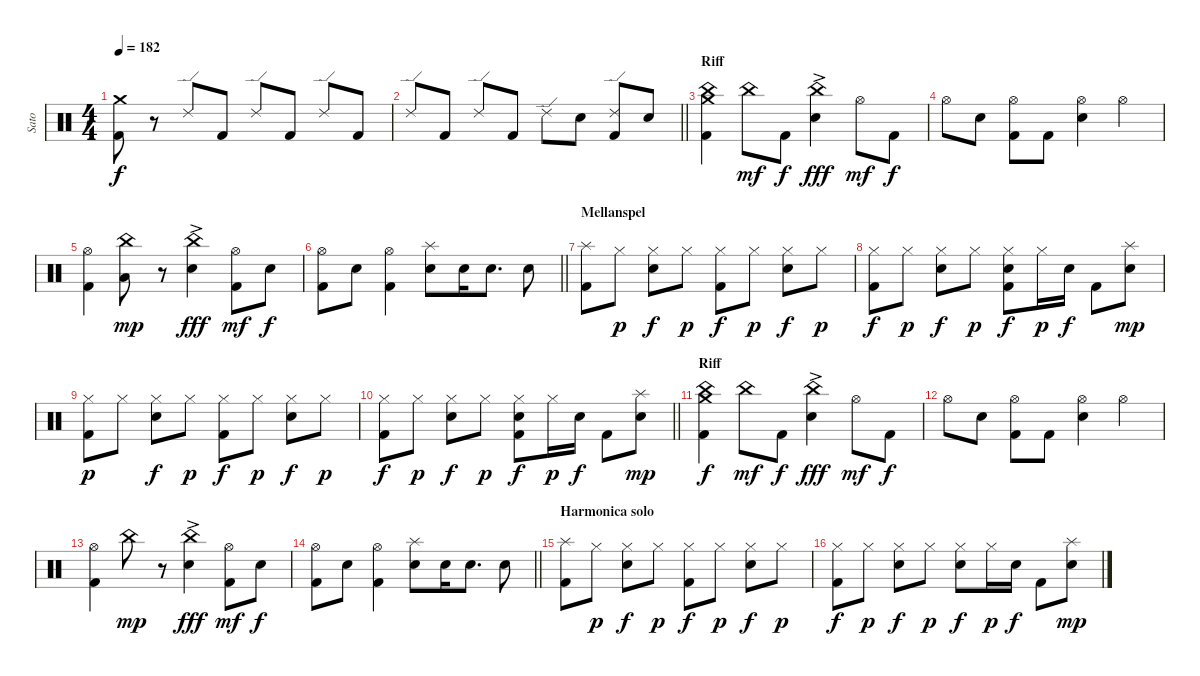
\track ("Sato" "Sato") {instrument percussion}
\staff {score}
\articulation defaults
\ts (4 4)
\tempo 182
\clef neutral
\ks c
("Crash medium (hit)" "Kick (hit) 2").8{dy f} r.8 "Ride (edge) 2".8 "Kick (hit) 2".8 "Ride (edge) 2".8 "Kick (hit) 2".8 "Ride (edge) 2".8 "Kick (hit) 2".8 |
\barLineRight lightlight "Ride (edge) 2".8 "Kick (hit) 2".8 "Ride (edge) 2".8 "Kick (hit) 2".8 "Ride (edge) 2".8 "Electric Snare (hit)".8
("Ride (edge) 2" "Kick (hit) 2").8 "Electric Snare (hit)".8 |
\section ("" "Riff")
("China (hit)" "Crash medium (hit)" "Kick (hit) 2").4 "China (hit)".8{dy mf} "Kick (hit) 2".8{dy f} ("China (hit)" "Electric Snare (hit)"{ac}).4{dy fff} "Hi-Hat (open)".8{dy mf} "Kick (hit) 2".8{dy f} |
"Hi-Hat (open)".8 "Electric Snare (hit)".8 ("Hi-Hat (open)" "Kick (hit) 2").8 "Kick (hit) 2".8 ("Hi-Hat (open)" "Electric Snare (hit)").4 "Hi-Hat (open)".4 |
("Hi-Hat (open)" "Kick (hit) 2").4 ("China (hit)" "Low Floor Tom (hit)").8{dy mp} r.8 ("China (hit)" "Electric Snare (hit)"{ac}).4{dy fff} ("Hi-Hat (open)" "Kick (hit) 2").8{dy mf} "Electric Snare (hit)".8{dy f} |
\barLineRight lightlight
("Hi-Hat (open)" "Kick (hit) 2").8 "Electric Snare (hit)".8 ("Hi-Hat (open)" "Kick (hit) 2").4 ("Splash (hit)" "Electric Snare (hit)").8 "Electric Snare (hit)".16 "Electric Snare (hit)".8{d} "Electric Snare (hit)".8 |
\section ("" "Mellanspel")
("Splash (hit)" "Kick (hit) 2").8 "Hi-Hat (closed)".8{dy p} ("Hi-Hat (closed)" "Electric Snare (hit)").8{dy f} "Hi-Hat (closed)".8{dy p} ("Hi-Hat (closed)" "Kick (hit) 2").8{dy f} "Hi-Hat (closed)".8{dy p} ("Hi-Hat (closed)" "Electric Snare (hit)").8{dy f} "Hi-Hat (closed)".8{dy p} |
("Hi-Hat (closed)" "Kick (hit) 2").8{dy f} "Hi-Hat (closed)".8{dy p} ("Hi-Hat (closed)" "Electric Snare (hit)").8{dy f} "Hi-Hat (closed)".8{dy p} ("Hi-Hat (closed)" "Electric Snare (hit)" "Kick (hit) 2").8{dy f} "Hi-Hat (closed)".16{dy p} "Electric Snare (hit)".16{dy f} "Kick (hit) 2".8 ("Splash (hit)" "Electric Snare (hit)").8{dy mp} |
("Hi-Hat (closed)" "Kick (hit) 2").8{dy p} "Hi-Hat (closed)".8 ("Hi-Hat (closed)" "Electric Snare (hit)").8{dy f} "Hi-Hat (closed)".8{dy p} ("Hi-Hat (closed)" "Kick (hit) 2").8{dy f} "Hi-Hat (closed)".8{dy p} ("Hi-Hat (closed)" "Electric Snare (hit)").8{dy f} "Hi-Hat (closed)".8{dy p} |
\barLineRight lightlight
("Hi-Hat (closed)" "Kick (hit) 2").8{dy f} "Hi-Hat (closed)".8{dy p} ("Hi-Hat (closed)" "Electric Snare (hit)").8{dy f} "Hi-Hat (closed)".8{dy p} ("Hi-Hat (closed)" "Electric Snare (hit)" "Kick (hit) 2").8{dy f} "Hi-Hat (closed)".16{dy p} "Electric Snare (hit)".16{dy f} "Kick (hit) 2".8 ("Splash (hit)" "Electric Snare (hit)").8{dy mp} |
\section ("" "Riff")
("China (hit)" "Crash medium (hit)" "Kick (hit) 2").4{dy f} "China (hit)".8{dy mf} "Kick (hit) 2".8{dy f} ("China (hit)" "Electric Snare (hit)"{ac}).4{dy fff} "Hi-Hat (open)".8{dy mf} "Kick (hit) 2".8{dy f} |
"Hi-Hat (open)".8 "Electric Snare (hit)".8 ("Hi-Hat (open)" "Kick (hit) 2").8 "Kick (hit) 2".8 ("Hi-Hat (open)" "Electric Snare (hit)").4 "Hi-Hat (open)".4 |
("Hi-Hat (open)" "Kick (hit) 2").4 "China (hit)".8{dy mp} r.8 ("China (hit)" "Electric Snare (hit)"{ac}).4{dy fff} ("Hi-Hat (open)" "Kick (hit) 2").8{dy mf} "Electric Snare (hit)".8{dy f} |
\barLineRight lightlight
("Hi-Hat (open)" "Kick (hit) 2").8 "Electric Snare (hit)".8 ("Hi-Hat (open)" "Kick (hit) 2").4 ("Splash (hit)" "Electric Snare (hit)").8 "Electric Snare (hit)".16 "Electric Snare (hit)".8{d} "Electric Snare (hit)".8 |
\section ("" "Harmonica solo")
("Splash (hit)" "Kick (hit) 2").8 "Hi-Hat (closed)".8{dy p} ("Hi-Hat (closed)" "Electric Snare (hit)").8{dy f} "Hi-Hat (closed)".8{dy p} ("Hi-Hat (closed)" "Kick (hit) 2").8{dy f} "Hi-Hat (closed)".8{dy p} ("Hi-Hat (closed)" "Electric Snare (hit)").8{dy f} "Hi-Hat (closed)".8{dy p} |
("Hi-Hat (closed)" "Kick (hit) 2").8{dy f} "Hi-Hat (closed)".8{dy p} ("Hi-Hat (closed)" "Electric Snare (hit)").8{dy f} "Hi-Hat (closed)".8{dy p} ("Hi-Hat (closed)" "Electric Snare (hit)").8{dy f} "Hi-Hat (closed)".16{dy p} "Electric Snare (hit)".16{dy f} "Kick (hit) 2".8 ("Splash (hit)" "Electric Snare (hit)").8{dy mp}
